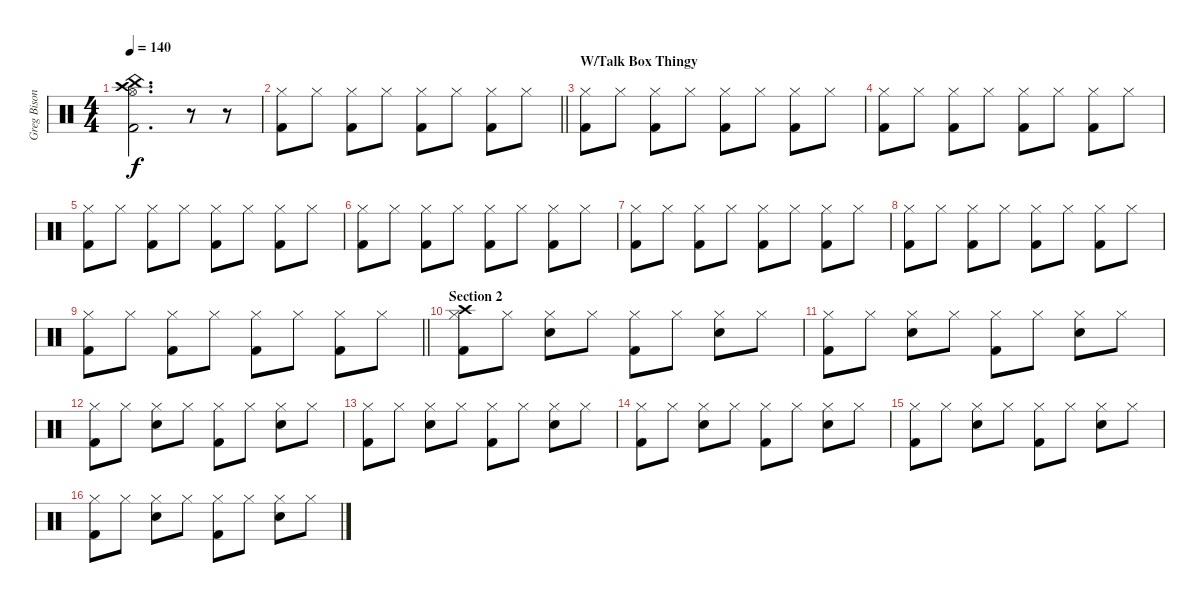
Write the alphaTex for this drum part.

\track ("Greg Bisonette" "Greg Bison") {instrument percussion}
\staff {score}
\articulation defaults
\ts (4 4)
\tempo 140
\clef neutral
\ks c
("Hi-Hat (open)" "Crash high (hit)" "China (hit)" "Kick (hit) 2").2{d dy f} r.8 r.8 |
\barLineRight lightlight
("Hi-Hat (closed)" "Kick (hit) 2").8 "Hi-Hat (closed)".8 ("Hi-Hat (closed)" "Kick (hit) 2").8 "Hi-Hat (closed)".8 ("Hi-Hat (closed)" "Kick (hit) 2").8 "Hi-Hat (closed)".8 ("Hi-Hat (closed)" "Kick (hit) 2").8 "Hi-Hat (closed)".8 |
\section ("" "W/Talk Box Thingy")
("Hi-Hat (closed)" "Kick (hit) 2").8 "Hi-Hat (closed)".8 ("Hi-Hat (closed)" "Kick (hit) 2").8 "Hi-Hat (closed)".8 ("Hi-Hat (closed)" "Kick (hit) 2").8 "Hi-Hat (closed)".8 ("Hi-Hat (closed)" "Kick (hit) 2").8 "Hi-Hat (closed)".8 |
("Hi-Hat (closed)" "Kick (hit) 2").8 "Hi-Hat (closed)".8 ("Hi-Hat (closed)" "Kick (hit) 2").8 "Hi-Hat (closed)".8 ("Hi-Hat (closed)" "Kick (hit) 2").8 "Hi-Hat (closed)".8 ("Hi-Hat (closed)" "Kick (hit) 2").8 "Hi-Hat (closed)".8 |
("Hi-Hat (closed)" "Kick (hit) 2").8 "Hi-Hat (closed)".8 ("Hi-Hat (closed)" "Kick (hit) 2").8 "Hi-Hat (closed)".8 ("Hi-Hat (closed)" "Kick (hit) 2").8 "Hi-Hat (closed)".8 ("Hi-Hat (closed)" "Kick (hit) 2").8 "Hi-Hat (closed)".8 |
("Hi-Hat (closed)" "Kick (hit) 2").8 "Hi-Hat (closed)".8 ("Hi-Hat (closed)" "Kick (hit) 2").8 "Hi-Hat (closed)".8 ("Hi-Hat (closed)" "Kick (hit) 2").8 "Hi-Hat (closed)".8 ("Hi-Hat (closed)" "Kick (hit) 2").8 "Hi-Hat (closed)".8 |
("Hi-Hat (closed)" "Kick (hit) 2").8 "Hi-Hat (closed)".8 ("Hi-Hat (closed)" "Kick (hit) 2").8 "Hi-Hat (closed)".8 ("Hi-Hat (closed)" "Kick (hit) 2").8 "Hi-Hat (closed)".8 ("Hi-Hat (closed)" "Kick (hit) 2").8 "Hi-Hat (closed)".8 |
("Hi-Hat (closed)" "Kick (hit) 2").8 "Hi-Hat (closed)".8 ("Hi-Hat (closed)" "Kick (hit) 2").8 "Hi-Hat (closed)".8 ("Hi-Hat (closed)" "Kick (hit) 2").8 "Hi-Hat (closed)".8 ("Hi-Hat (closed)" "Kick (hit) 2").8 "Hi-Hat (closed)".8 |
\barLineRight lightlight
("Hi-Hat (closed)" "Kick (hit) 2").8 "Hi-Hat (closed)".8 ("Hi-Hat (closed)" "Kick (hit) 2").8 "Hi-Hat (closed)".8 ("Hi-Hat (closed)" "Kick (hit) 2").8 "Hi-Hat (closed)".8 ("Hi-Hat (closed)" "Kick (hit) 2").8 "Hi-Hat (closed)".8 |
\section ("" "Section 2")
("Crash high (hit)" "Hi-Hat (closed)" "Kick (hit) 2").8 "Hi-Hat (closed)".8 ("Hi-Hat (closed)" "Electric Snare (hit)").8 "Hi-Hat (closed)".8 ("Hi-Hat (closed)" "Kick (hit) 2").8 "Hi-Hat (closed)".8 ("Hi-Hat (closed)" "Electric Snare (hit)").8 "Hi-Hat (closed)".8 |
("Hi-Hat (closed)" "Kick (hit) 2").8 "Hi-Hat (closed)".8 ("Hi-Hat (closed)" "Electric Snare (hit)").8 "Hi-Hat (closed)".8 ("Hi-Hat (closed)" "Kick (hit) 2").8 "Hi-Hat (closed)".8 ("Hi-Hat (closed)" "Electric Snare (hit)").8 "Hi-Hat (closed)".8 |
("Hi-Hat (closed)" "Kick (hit) 2").8 "Hi-Hat (closed)".8 ("Hi-Hat (closed)" "Electric Snare (hit)").8 "Hi-Hat (closed)".8 ("Hi-Hat (closed)" "Kick (hit) 2").8 "Hi-Hat (closed)".8 ("Hi-Hat (closed)" "Electric Snare (hit)").8 "Hi-Hat (closed)".8 |
("Hi-Hat (closed)" "Kick (hit) 2").8 "Hi-Hat (closed)".8 ("Hi-Hat (closed)" "Electric Snare (hit)").8 "Hi-Hat (closed)".8 ("Hi-Hat (closed)" "Kick (hit) 2").8 "Hi-Hat (closed)".8 ("Hi-Hat (closed)" "Electric Snare (hit)").8 "Hi-Hat (closed)".8 |
("Hi-Hat (closed)" "Kick (hit) 2").8 "Hi-Hat (closed)".8 ("Hi-Hat (closed)" "Electric Snare (hit)").8 "Hi-Hat (closed)".8 ("Hi-Hat (closed)" "Kick (hit) 2").8 "Hi-Hat (closed)".8 ("Hi-Hat (closed)" "Electric Snare (hit)").8 "Hi-Hat (closed)".8 |
("Hi-Hat (closed)" "Kick (hit) 2").8 "Hi-Hat (closed)".8 ("Hi-Hat (closed)" "Electric Snare (hit)").8 "Hi-Hat (closed)".8 ("Hi-Hat (closed)" "Kick (hit) 2").8 "Hi-Hat (closed)".8 ("Hi-Hat (closed)" "Electric Snare (hit)").8 "Hi-Hat (closed)".8 |
("Hi-Hat (closed)" "Kick (hit) 2").8 "Hi-Hat (closed)".8 ("Hi-Hat (closed)" "Electric Snare (hit)").8 "Hi-Hat (closed)".8 ("Hi-Hat (closed)" "Kick (hit) 2").8 "Hi-Hat (closed)".8 ("Hi-Hat (closed)" "Electric Snare (hit)").8 "Hi-Hat (closed)".8
